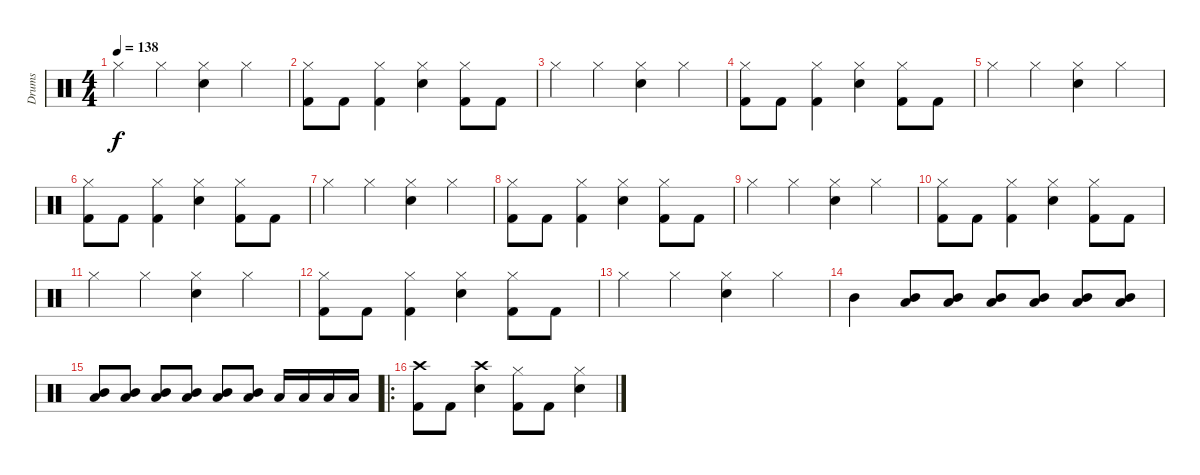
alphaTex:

\track ("Drums" "Drums") {instrument percussion}
\staff {score}
\articulation defaults
\ts (4 4)
\tempo 138
\clef neutral
\ks c "Hi-Hat (closed)".4{dy f} "Hi-Hat (closed)".4
("Hi-Hat (closed)" "Snare (hit) 2").4 "Hi-Hat (closed)".4 |
("Hi-Hat (closed)" "Kick (hit) 2").8 "Kick (hit) 2".8 ("Hi-Hat (closed)" "Kick (hit) 2").4 ("Hi-Hat (closed)" "Snare (hit) 2").4 ("Hi-Hat (closed)" "Kick (hit) 2").8 "Kick (hit) 2".8 |
"Hi-Hat (closed)".4 "Hi-Hat (closed)".4 ("Hi-Hat (closed)" "Snare (hit) 2").4 "Hi-Hat (closed)".4 |
("Hi-Hat (closed)" "Kick (hit) 2").8 "Kick (hit) 2".8 ("Hi-Hat (closed)" "Kick (hit) 2").4 ("Hi-Hat (closed)" "Snare (hit) 2").4 ("Hi-Hat (closed)" "Kick (hit) 2").8 "Kick (hit) 2".8 |
"Hi-Hat (closed)".4 "Hi-Hat (closed)".4 ("Hi-Hat (closed)" "Snare (hit) 2").4 "Hi-Hat (closed)".4 |
("Hi-Hat (closed)" "Kick (hit) 2").8 "Kick (hit) 2".8 ("Hi-Hat (closed)" "Kick (hit) 2").4 ("Hi-Hat (closed)" "Snare (hit) 2").4 ("Hi-Hat (closed)" "Kick (hit) 2").8 "Kick (hit) 2".8 |
"Hi-Hat (closed)".4 "Hi-Hat (closed)".4 ("Hi-Hat (closed)" "Snare (hit) 2").4 "Hi-Hat (closed)".4 |
("Hi-Hat (closed)" "Kick (hit) 2").8 "Kick (hit) 2".8 ("Hi-Hat (closed)" "Kick (hit) 2").4 ("Hi-Hat (closed)" "Snare (hit) 2").4 ("Hi-Hat (closed)" "Kick (hit) 2").8 "Kick (hit) 2".8 |
"Hi-Hat (closed)".4 "Hi-Hat (closed)".4 ("Hi-Hat (closed)" "Snare (hit) 2").4 "Hi-Hat (closed)".4 |
("Hi-Hat (closed)" "Kick (hit) 2").8 "Kick (hit) 2".8 ("Hi-Hat (closed)" "Kick (hit) 2").4 ("Hi-Hat (closed)" "Snare (hit) 2").4 ("Hi-Hat (closed)" "Kick (hit) 2").8 "Kick (hit) 2".8 |
"Hi-Hat (closed)".4 "Hi-Hat (closed)".4 ("Hi-Hat (closed)" "Snare (hit) 2").4 "Hi-Hat (closed)".4 |
("Hi-Hat (closed)" "Kick (hit) 2").8 "Kick (hit) 2".8 ("Hi-Hat (closed)" "Kick (hit) 2").4 ("Hi-Hat (closed)" "Snare (hit) 2").4 ("Hi-Hat (closed)" "Kick (hit) 2").8 "Kick (hit) 2".8 |
"Hi-Hat (closed)".4 "Hi-Hat (closed)".4 ("Hi-Hat (closed)" "Snare (hit) 2").4 "Hi-Hat (closed)".4 |
"Mid Tom (hit)".4 ("Mid Tom (hit)" "Low Tom (hit)").8 ("Mid Tom (hit)" "Low Tom (hit)").8 ("Mid Tom (hit)" "Low Tom (hit)").8 ("Mid Tom (hit)" "Low Tom (hit)").8 ("Mid Tom (hit)" "Low Tom (hit)").8 ("Mid Tom (hit)" "Low Tom (hit)").8 |
("Mid Tom (hit)" "Low Floor Tom (hit)").8 ("Mid Tom (hit)" "Low Floor Tom (hit)").8 ("Mid Tom (hit)" "Low Floor Tom (hit)").8 ("Mid Tom (hit)" "Low Floor Tom (hit)").8 ("Mid Tom (hit)" "Low Floor Tom (hit)").8 ("Mid Tom (hit)" "Low Floor Tom (hit)").8 "Low Tom (hit)".16 "Low Tom (hit)".16 "Low Tom (hit)".16 "Low Tom (hit)".16 |
\ro
("Crash high (hit)" "Kick (hit) 2").8 "Kick (hit) 2".8 ("Crash high (hit)" "Snare (hit) 2").4 ("Hi-Hat (closed)" "Kick (hit) 2").8 "Kick (hit) 2".8 ("Hi-Hat (closed)" "Snare (hit) 2").4
